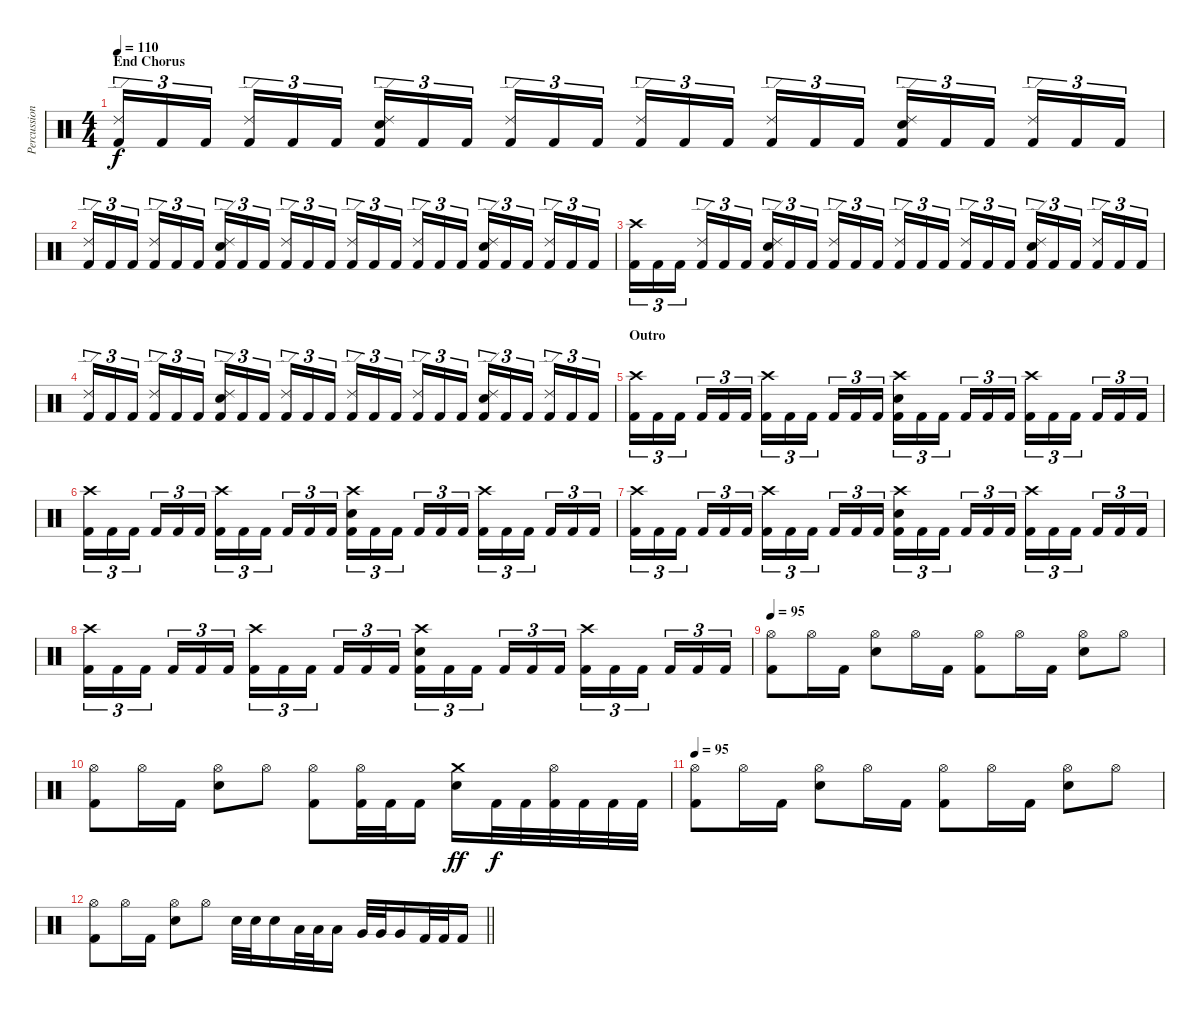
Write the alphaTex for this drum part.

\track ("Percussions" "Percussion") {instrument percussion}
\staff {score}
\articulation defaults
\ts (4 4)
\section ("" "End Chorus")
\tempo 110
\clef neutral
\ks c
("Ride (edge) 2" "Kick (hit) 2").16{tu (3 2) dy f} "Kick (hit) 2".16{tu (3 2)} "Kick (hit) 2".16{tu (3 2)} ("Ride (edge) 2" "Kick (hit) 2").16{tu (3 2)} "Kick (hit) 2".16{tu (3 2)} "Kick (hit) 2".16{tu (3 2)} ("Ride (edge) 2" "Electric Snare (hit)" "Kick (hit) 2").16{tu (3 2)} "Kick (hit) 2".16{tu (3 2)} "Kick (hit) 2".16{tu (3 2)} ("Ride (edge) 2" "Kick (hit) 2").16{tu (3 2)} "Kick (hit) 2".16{tu (3 2)} "Kick (hit) 2".16{tu (3 2)} ("Ride (edge) 2" "Kick (hit) 2").16{tu (3 2)} "Kick (hit) 2".16{tu (3 2)} "Kick (hit) 2".16{tu (3 2)} ("Ride (edge) 2" "Kick (hit) 2").16{tu (3 2)} "Kick (hit) 2".16{tu (3 2)} "Kick (hit) 2".16{tu (3 2)} ("Ride (edge) 2" "Electric Snare (hit)" "Kick (hit) 2").16{tu (3 2)} "Kick (hit) 2".16{tu (3 2)} "Kick (hit) 2".16{tu (3 2)} ("Ride (edge) 2" "Kick (hit) 2").16{tu (3 2)} "Kick (hit) 2".16{tu (3 2)} "Kick (hit) 2".16{tu (3 2)} |
("Ride (edge) 2" "Kick (hit) 2").16{tu (3 2)} "Kick (hit) 2".16{tu (3 2)} "Kick (hit) 2".16{tu (3 2)} ("Ride (edge) 2" "Kick (hit) 2").16{tu (3 2)} "Kick (hit) 2".16{tu (3 2)} "Kick (hit) 2".16{tu (3 2)} ("Ride (edge) 2" "Electric Snare (hit)" "Kick (hit) 2").16{tu (3 2)} "Kick (hit) 2".16{tu (3 2)} "Kick (hit) 2".16{tu (3 2)} ("Ride (edge) 2" "Kick (hit) 2").16{tu (3 2)} "Kick (hit) 2".16{tu (3 2)} "Kick (hit) 2".16{tu (3 2)} ("Ride (edge) 2" "Kick (hit) 2").16{tu (3 2)} "Kick (hit) 2".16{tu (3 2)} "Kick (hit) 2".16{tu (3 2)} ("Ride (edge) 2" "Kick (hit) 2").16{tu (3 2)} "Kick (hit) 2".16{tu (3 2)} "Kick (hit) 2".16{tu (3 2)} ("Ride (edge) 2" "Electric Snare (hit)" "Kick (hit) 2").16{tu (3 2)} "Kick (hit) 2".16{tu (3 2)} "Kick (hit) 2".16{tu (3 2)} ("Ride (edge) 2" "Kick (hit) 2").16{tu (3 2)} "Kick (hit) 2".16{tu (3 2)} "Kick (hit) 2".16{tu (3 2)} |
("Crash high (hit)" "Kick (hit) 2").16{tu (3 2)} "Kick (hit) 2".16{tu (3 2)} "Kick (hit) 2".16{tu (3 2)} ("Ride (edge) 2" "Kick (hit) 2").16{tu (3 2)} "Kick (hit) 2".16{tu (3 2)} "Kick (hit) 2".16{tu (3 2)} ("Ride (edge) 2" "Electric Snare (hit)" "Kick (hit) 2").16{tu (3 2)} "Kick (hit) 2".16{tu (3 2)} "Kick (hit) 2".16{tu (3 2)} ("Ride (edge) 2" "Kick (hit) 2").16{tu (3 2)} "Kick (hit) 2".16{tu (3 2)} "Kick (hit) 2".16{tu (3 2)} ("Ride (edge) 2" "Kick (hit) 2").16{tu (3 2)} "Kick (hit) 2".16{tu (3 2)} "Kick (hit) 2".16{tu (3 2)} ("Ride (edge) 2" "Kick (hit) 2").16{tu (3 2)} "Kick (hit) 2".16{tu (3 2)} "Kick (hit) 2".16{tu (3 2)} ("Ride (edge) 2" "Electric Snare (hit)" "Kick (hit) 2").16{tu (3 2)} "Kick (hit) 2".16{tu (3 2)} "Kick (hit) 2".16{tu (3 2)} ("Ride (edge) 2" "Kick (hit) 2").16{tu (3 2)} "Kick (hit) 2".16{tu (3 2)} "Kick (hit) 2".16{tu (3 2)} |
("Ride (edge) 2" "Kick (hit) 2").16{tu (3 2)} "Kick (hit) 2".16{tu (3 2)} "Kick (hit) 2".16{tu (3 2)} ("Ride (edge) 2" "Kick (hit) 2").16{tu (3 2)} "Kick (hit) 2".16{tu (3 2)} "Kick (hit) 2".16{tu (3 2)} ("Ride (edge) 2" "Electric Snare (hit)" "Kick (hit) 2").16{tu (3 2)} "Kick (hit) 2".16{tu (3 2)} "Kick (hit) 2".16{tu (3 2)} ("Ride (edge) 2" "Kick (hit) 2").16{tu (3 2)} "Kick (hit) 2".16{tu (3 2)} "Kick (hit) 2".16{tu (3 2)} ("Ride (edge) 2" "Kick (hit) 2").16{tu (3 2)} "Kick (hit) 2".16{tu (3 2)} "Kick (hit) 2".16{tu (3 2)} ("Ride (edge) 2" "Kick (hit) 2").16{tu (3 2)} "Kick (hit) 2".16{tu (3 2)} "Kick (hit) 2".16{tu (3 2)} ("Ride (edge) 2" "Electric Snare (hit)" "Kick (hit) 2").16{tu (3 2)} "Kick (hit) 2".16{tu (3 2)} "Kick (hit) 2".16{tu (3 2)} ("Ride (edge) 2" "Kick (hit) 2").16{tu (3 2)} "Kick (hit) 2".16{tu (3 2)} "Kick (hit) 2".16{tu (3 2)} |
\section ("" "Outro")
("Crash high (hit)" "Kick (hit) 2").16{tu (3 2)} "Kick (hit) 2".16{tu (3 2)} "Kick (hit) 2".16{tu (3 2)} "Kick (hit) 2".16{tu (3 2)} "Kick (hit) 2".16{tu (3 2)} "Kick (hit) 2".16{tu (3 2)} ("Crash high (hit)" "Kick (hit) 2").16{tu (3 2)} "Kick (hit) 2".16{tu (3 2)} "Kick (hit) 2".16{tu (3 2)} "Kick (hit) 2".16{tu (3 2)} "Kick (hit) 2".16{tu (3 2)} "Kick (hit) 2".16{tu (3 2)} ("Crash high (hit)" "Electric Snare (hit)" "Kick (hit) 2").16{tu (3 2)} "Kick (hit) 2".16{tu (3 2)} "Kick (hit) 2".16{tu (3 2)} "Kick (hit) 2".16{tu (3 2)} "Kick (hit) 2".16{tu (3 2)} "Kick (hit) 2".16{tu (3 2)} ("Crash high (hit)" "Kick (hit) 2").16{tu (3 2)} "Kick (hit) 2".16{tu (3 2)} "Kick (hit) 2".16{tu (3 2)} "Kick (hit) 2".16{tu (3 2)} "Kick (hit) 2".16{tu (3 2)} "Kick (hit) 2".16{tu (3 2)} |
("Crash high (hit)" "Kick (hit) 2").16{tu (3 2)} "Kick (hit) 2".16{tu (3 2)} "Kick (hit) 2".16{tu (3 2)} "Kick (hit) 2".16{tu (3 2)} "Kick (hit) 2".16{tu (3 2)} "Kick (hit) 2".16{tu (3 2)} ("Crash high (hit)" "Kick (hit) 2").16{tu (3 2)} "Kick (hit) 2".16{tu (3 2)} "Kick (hit) 2".16{tu (3 2)} "Kick (hit) 2".16{tu (3 2)} "Kick (hit) 2".16{tu (3 2)} "Kick (hit) 2".16{tu (3 2)} ("Crash high (hit)" "Electric Snare (hit)" "Kick (hit) 2").16{tu (3 2)} "Kick (hit) 2".16{tu (3 2)} "Kick (hit) 2".16{tu (3 2)} "Kick (hit) 2".16{tu (3 2)} "Kick (hit) 2".16{tu (3 2)} "Kick (hit) 2".16{tu (3 2)} ("Crash high (hit)" "Kick (hit) 2").16{tu (3 2)} "Kick (hit) 2".16{tu (3 2)} "Kick (hit) 2".16{tu (3 2)} "Kick (hit) 2".16{tu (3 2)} "Kick (hit) 2".16{tu (3 2)} "Kick (hit) 2".16{tu (3 2)} |
("Crash high (hit)" "Kick (hit) 2").16{tu (3 2)} "Kick (hit) 2".16{tu (3 2)} "Kick (hit) 2".16{tu (3 2)} "Kick (hit) 2".16{tu (3 2)} "Kick (hit) 2".16{tu (3 2)} "Kick (hit) 2".16{tu (3 2)} ("Crash high (hit)" "Kick (hit) 2").16{tu (3 2)} "Kick (hit) 2".16{tu (3 2)} "Kick (hit) 2".16{tu (3 2)} "Kick (hit) 2".16{tu (3 2)} "Kick (hit) 2".16{tu (3 2)} "Kick (hit) 2".16{tu (3 2)} ("Crash high (hit)" "Electric Snare (hit)" "Kick (hit) 2").16{tu (3 2)} "Kick (hit) 2".16{tu (3 2)} "Kick (hit) 2".16{tu (3 2)} "Kick (hit) 2".16{tu (3 2)} "Kick (hit) 2".16{tu (3 2)} "Kick (hit) 2".16{tu (3 2)} ("Crash high (hit)" "Kick (hit) 2").16{tu (3 2)} "Kick (hit) 2".16{tu (3 2)} "Kick (hit) 2".16{tu (3 2)} "Kick (hit) 2".16{tu (3 2)} "Kick (hit) 2".16{tu (3 2)} "Kick (hit) 2".16{tu (3 2)} |
("Crash high (hit)" "Kick (hit) 2").16{tu (3 2)} "Kick (hit) 2".16{tu (3 2)} "Kick (hit) 2".16{tu (3 2)} "Kick (hit) 2".16{tu (3 2)} "Kick (hit) 2".16{tu (3 2)} "Kick (hit) 2".16{tu (3 2)} ("Crash high (hit)" "Kick (hit) 2").16{tu (3 2)} "Kick (hit) 2".16{tu (3 2)} "Kick (hit) 2".16{tu (3 2)} "Kick (hit) 2".16{tu (3 2)} "Kick (hit) 2".16{tu (3 2)} "Kick (hit) 2".16{tu (3 2)} ("Crash high (hit)" "Electric Snare (hit)" "Kick (hit) 2").16{tu (3 2)} "Kick (hit) 2".16{tu (3 2)} "Kick (hit) 2".16{tu (3 2)} "Kick (hit) 2".16{tu (3 2)} "Kick (hit) 2".16{tu (3 2)} "Kick (hit) 2".16{tu (3 2)} ("Crash high (hit)" "Kick (hit) 2").16{tu (3 2)} "Kick (hit) 2".16{tu (3 2)} "Kick (hit) 2".16{tu (3 2)} "Kick (hit) 2".16{tu (3 2)} "Kick (hit) 2".16{tu (3 2)} "Kick (hit) 2".16{tu (3 2)} |
\tempo 95
("Hi-Hat (open)" "Kick (hit) 2").8 "Hi-Hat (open)".16 "Kick (hit) 2".16 ("Hi-Hat (open)" "Electric Snare (hit)").8 "Hi-Hat (open)".16 "Kick (hit) 2".16 ("Hi-Hat (open)" "Kick (hit) 2").8 "Hi-Hat (open)".16 "Kick (hit) 2".16 ("Hi-Hat (open)" "Electric Snare (hit)").8 "Hi-Hat (open)".8 |
("Hi-Hat (open)" "Kick (hit) 2").8 "Hi-Hat (open)".16 "Kick (hit) 2".16 ("Hi-Hat (open)" "Electric Snare (hit)").8 "Hi-Hat (open)".8 ("Hi-Hat (open)" "Kick (hit) 2").8 ("Hi-Hat (open)" "Kick (hit) 2").32 "Kick (hit) 2".32 "Kick (hit) 2".16 ("Crash medium (hit)" "Electric Snare (hit)").16{dy ff} "Kick (hit) 2".32{dy f} "Kick (hit) 2".32 ("Hi-Hat (open)" "Kick (hit) 2").32 "Kick (hit) 2".32 "Kick (hit) 2".32 "Kick (hit) 2".32 |
\tempo 95
("Hi-Hat (open)" "Kick (hit) 2").8 "Hi-Hat (open)".16 "Kick (hit) 2".16 ("Hi-Hat (open)" "Electric Snare (hit)").8 "Hi-Hat (open)".16 "Kick (hit) 2".16 ("Hi-Hat (open)" "Kick (hit) 2").8 "Hi-Hat (open)".16 "Kick (hit) 2".16 ("Hi-Hat (open)" "Electric Snare (hit)").8 "Hi-Hat (open)".8 |
\barLineRight lightlight
("Hi-Hat (open)" "Kick (hit) 2").8 "Hi-Hat (open)".16 "Kick (hit) 2".16 ("Hi-Hat (open)" "Electric Snare (hit)").8 "Hi-Hat (open)".8 "Electric Snare (hit)".32 "Electric Snare (hit)".32 "Electric Snare (hit)".16 "Low Tom (hit)".32 "Low Tom (hit)".32 "Low Tom (hit)".16 "Very Low Tom (hit)".32 "Very Low Tom (hit)".32 "Very Low Tom (hit)".16 "Kick (hit) 2".32 "Kick (hit) 2".32 "Kick (hit) 2".16
